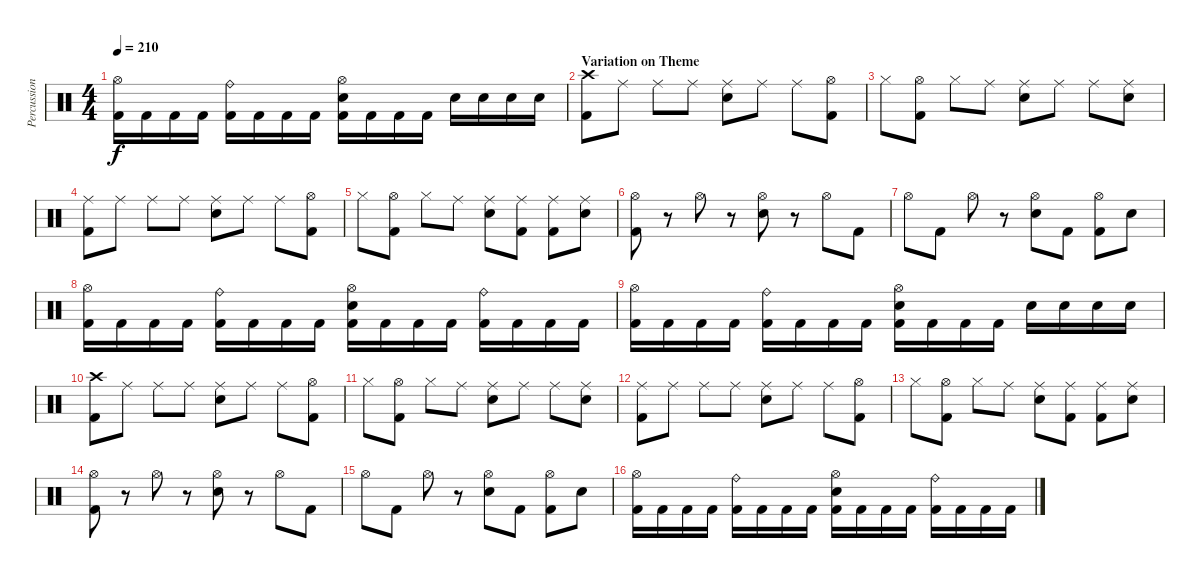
\track ("Percussion" "Percussion") {instrument percussion}
\staff {score}
\articulation defaults
\ts (4 4)
\tempo 210
\clef neutral
\ks c
("Hi-Hat (open)" "Kick (hit) 2").16{dy f} "Kick (hit) 2".16 "Kick (hit) 2".16 "Kick (hit) 2".16 ("Ride (bell)" "Kick (hit) 2").16 "Kick (hit) 2".16 "Kick (hit) 2".16 "Kick (hit) 2".16 ("Hi-Hat (open)" "Electric Snare (hit)" "Kick (hit) 2").16 "Kick (hit) 2".16 "Kick (hit) 2".16 "Kick (hit) 2".16 "Electric Snare (hit)".16 "Electric Snare (hit)".16 "Electric Snare (hit)".16 "Electric Snare (hit)".16 |
\section ("" "Variation on Theme")
("Crash high (hit)" "Kick (hit) 2").8 "Ride (middle)".8 "Ride (middle)".8 "Ride (middle)".8 ("Ride (middle)" "Electric Snare (hit)").8 "Ride (middle)".8 "Ride (middle)".8 ("Hi-Hat (open)" "Kick (hit) 2").8 |
"Hi-Hat (closed)".8 ("Hi-Hat (open)" "Kick (hit) 2").8 "Hi-Hat (closed)".8 "Ride (middle)".8 ("Ride (middle)" "Electric Snare (hit)").8 "Ride (middle)".8 "Ride (middle)".8 ("Ride (middle)" "Electric Snare (hit)").8 |
("Ride (middle)" "Kick (hit) 2").8 "Ride (middle)".8 "Ride (middle)".8 "Ride (middle)".8 ("Ride (middle)" "Electric Snare (hit)").8 "Ride (middle)".8 "Ride (middle)".8 ("Hi-Hat (open)" "Kick (hit) 2").8 |
"Hi-Hat (closed)".8 ("Hi-Hat (open)" "Kick (hit) 2").8 "Hi-Hat (closed)".8 "Ride (middle)".8 ("Ride (middle)" "Electric Snare (hit)").8 ("Ride (middle)" "Kick (hit) 2").8 ("Ride (middle)" "Kick (hit) 2").8 ("Ride (middle)" "Electric Snare (hit)").8 |
("Hi-Hat (open)" "Kick (hit) 2").8 r.8 "Hi-Hat (open)".8 r.8 ("Hi-Hat (open)" "Electric Snare (hit)").8 r.8 "Hi-Hat (open)".8 "Kick (hit) 2".8 |
"Hi-Hat (open)".8 "Kick (hit) 2".8 "Hi-Hat (open)".8 r.8 ("Hi-Hat (open)" "Electric Snare (hit)").8 "Kick (hit) 2".8 ("Hi-Hat (open)" "Kick (hit) 2").8 "Electric Snare (hit)".8 |
("Hi-Hat (open)" "Kick (hit) 2").16 "Kick (hit) 2".16 "Kick (hit) 2".16 "Kick (hit) 2".16 ("Ride (bell)" "Kick (hit) 2").16 "Kick (hit) 2".16 "Kick (hit) 2".16 "Kick (hit) 2".16 ("Hi-Hat (open)" "Electric Snare (hit)" "Kick (hit) 2").16 "Kick (hit) 2".16 "Kick (hit) 2".16 "Kick (hit) 2".16 ("Ride (bell)" "Kick (hit) 2").16 "Kick (hit) 2".16 "Kick (hit) 2".16 "Kick (hit) 2".16 |
("Hi-Hat (open)" "Kick (hit) 2").16 "Kick (hit) 2".16 "Kick (hit) 2".16 "Kick (hit) 2".16 ("Ride (bell)" "Kick (hit) 2").16 "Kick (hit) 2".16 "Kick (hit) 2".16 "Kick (hit) 2".16 ("Hi-Hat (open)" "Electric Snare (hit)" "Kick (hit) 2").16 "Kick (hit) 2".16 "Kick (hit) 2".16 "Kick (hit) 2".16 "Electric Snare (hit)".16 "Electric Snare (hit)".16 "Electric Snare (hit)".16 "Electric Snare (hit)".16 |
("Crash high (hit)" "Kick (hit) 2").8 "Ride (middle)".8 "Ride (middle)".8 "Ride (middle)".8 ("Ride (middle)" "Electric Snare (hit)").8 "Ride (middle)".8 "Ride (middle)".8 ("Hi-Hat (open)" "Kick (hit) 2").8 |
"Hi-Hat (closed)".8 ("Hi-Hat (open)" "Kick (hit) 2").8 "Hi-Hat (closed)".8 "Ride (middle)".8 ("Ride (middle)" "Electric Snare (hit)").8 "Ride (middle)".8 "Ride (middle)".8 ("Ride (middle)" "Electric Snare (hit)").8 |
("Ride (middle)" "Kick (hit) 2").8 "Ride (middle)".8 "Ride (middle)".8 "Ride (middle)".8 ("Ride (middle)" "Electric Snare (hit)").8 "Ride (middle)".8 "Ride (middle)".8 ("Hi-Hat (open)" "Kick (hit) 2").8 |
"Hi-Hat (closed)".8 ("Hi-Hat (open)" "Kick (hit) 2").8 "Hi-Hat (closed)".8 "Ride (middle)".8 ("Ride (middle)" "Electric Snare (hit)").8 ("Ride (middle)" "Kick (hit) 2").8 ("Ride (middle)" "Kick (hit) 2").8 ("Ride (middle)" "Electric Snare (hit)").8 |
("Hi-Hat (open)" "Kick (hit) 2").8 r.8 "Hi-Hat (open)".8 r.8 ("Hi-Hat (open)" "Electric Snare (hit)").8 r.8 "Hi-Hat (open)".8 "Kick (hit) 2".8 |
"Hi-Hat (open)".8 "Kick (hit) 2".8 "Hi-Hat (open)".8 r.8 ("Hi-Hat (open)" "Electric Snare (hit)").8 "Kick (hit) 2".8 ("Hi-Hat (open)" "Kick (hit) 2").8 "Electric Snare (hit)".8 |
("Hi-Hat (open)" "Kick (hit) 2").16 "Kick (hit) 2".16 "Kick (hit) 2".16 "Kick (hit) 2".16 ("Ride (bell)" "Kick (hit) 2").16 "Kick (hit) 2".16 "Kick (hit) 2".16 "Kick (hit) 2".16 ("Hi-Hat (open)" "Electric Snare (hit)" "Kick (hit) 2").16 "Kick (hit) 2".16 "Kick (hit) 2".16 "Kick (hit) 2".16 ("Ride (bell)" "Kick (hit) 2").16 "Kick (hit) 2".16 "Kick (hit) 2".16 "Kick (hit) 2".16
